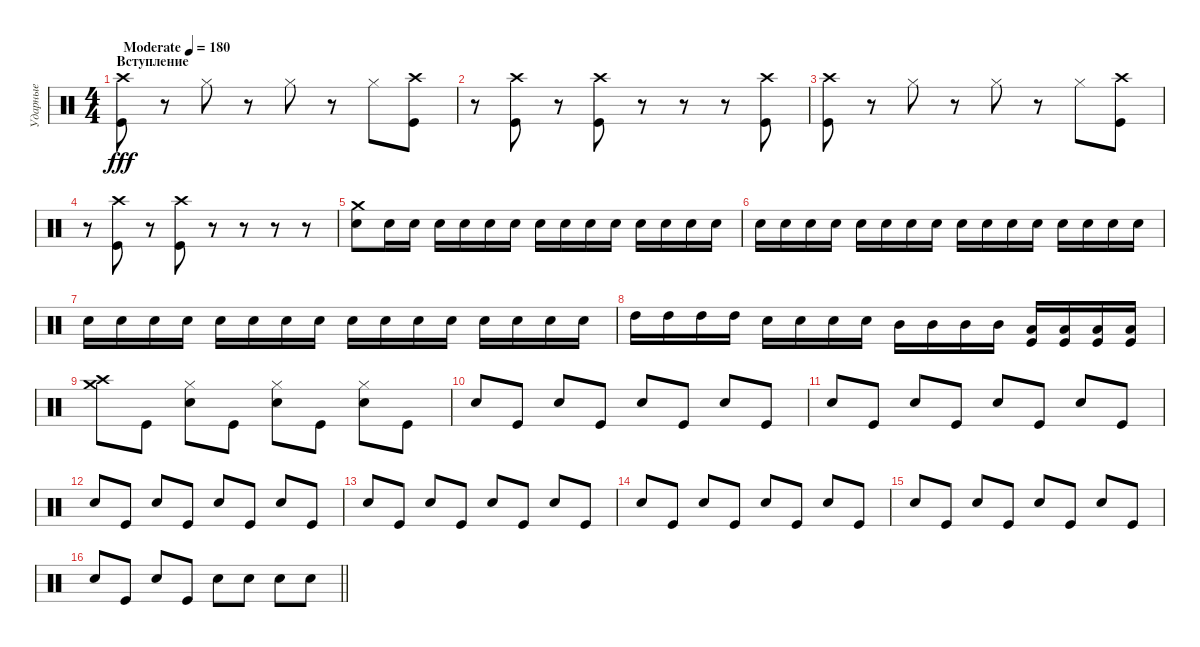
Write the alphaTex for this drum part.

\track ("Ударные" "Ударные") {instrument percussion}
\staff {score}
\articulation defaults
\ts (4 4)
\section ("" "Вступление")
\tempo (180 "Moderate")
\clef neutral
\ks c
("Crash high (hit)" "Kick (hit)").8{dy fff} r.8 "Hi-Hat (closed)".8 r.8 "Hi-Hat (closed)".8 r.8 "Hi-Hat (closed)".8 ("Crash high (hit)" "Kick (hit)").8 |
r.8 ("Crash high (hit)" "Kick (hit)").8 r.8 ("Crash high (hit)" "Kick (hit)").8 r.8 r.8 r.8 ("Crash high (hit)" "Kick (hit)").8 |
("Crash high (hit)" "Kick (hit)").8 r.8 "Hi-Hat (closed)".8 r.8 "Hi-Hat (closed)".8 r.8 "Hi-Hat (closed)".8 ("Crash high (hit)" "Kick (hit)").8 |
r.8 ("Crash high (hit)" "Kick (hit)").8 r.8 ("Crash high (hit)" "Kick (hit)").8 r.8 r.8 r.8 r.8 |
("Crash medium (hit)" "Electric Snare (hit)").8 "Electric Snare (hit)".16 "Electric Snare (hit)".16 "Electric Snare (hit)".16 "Electric Snare (hit)".16 "Electric Snare (hit)".16 "Electric Snare (hit)".16 "Electric Snare (hit)".16 "Electric Snare (hit)".16 "Electric Snare (hit)".16 "Electric Snare (hit)".16 "Electric Snare (hit)".16 "Electric Snare (hit)".16 "Electric Snare (hit)".16 "Electric Snare (hit)".16 |
"Electric Snare (hit)".16 "Electric Snare (hit)".16 "Electric Snare (hit)".16 "Electric Snare (hit)".16 "Electric Snare (hit)".16 "Electric Snare (hit)".16 "Electric Snare (hit)".16 "Electric Snare (hit)".16 "Electric Snare (hit)".16 "Electric Snare (hit)".16 "Electric Snare (hit)".16 "Electric Snare (hit)".16 "Electric Snare (hit)".16 "Electric Snare (hit)".16 "Electric Snare (hit)".16 "Electric Snare (hit)".16 |
"Electric Snare (hit)".16 "Electric Snare (hit)".16 "Electric Snare (hit)".16 "Electric Snare (hit)".16 "Electric Snare (hit)".16 "Electric Snare (hit)".16 "Electric Snare (hit)".16 "Electric Snare (hit)".16 "Electric Snare (hit)".16 "Electric Snare (hit)".16 "Electric Snare (hit)".16 "Electric Snare (hit)".16 "Electric Snare (hit)".16 "Electric Snare (hit)".16 "Electric Snare (hit)".16 "Electric Snare (hit)".16 |
"High Tom (hit)".16 "High Tom (hit)".16 "High Tom (hit)".16 "High Tom (hit)".16 "Electric Snare (hit)".16 "Electric Snare (hit)".16 "Electric Snare (hit)".16 "Electric Snare (hit)".16 "Mid Tom (hit)".16 "Mid Tom (hit)".16 "Mid Tom (hit)".16 "Mid Tom (hit)".16 ("Low Tom (hit)" "Kick (hit)").16 ("Low Tom (hit)" "Kick (hit)").16 ("Low Tom (hit)" "Kick (hit)").16 ("Low Tom (hit)" "Kick (hit)").16 |
("Crash medium (hit)" "Crash high (hit)").8 "Kick (hit)".8 ("Hi-Hat (closed)" "Electric Snare (hit)").8 "Kick (hit)".8 ("Hi-Hat (closed)" "Electric Snare (hit)").8 "Kick (hit)".8 ("Hi-Hat (closed)" "Electric Snare (hit)").8 "Kick (hit)".8 |
"Electric Snare (hit)".8 "Kick (hit)".8 "Electric Snare (hit)".8 "Kick (hit)".8 "Electric Snare (hit)".8 "Kick (hit)".8 "Electric Snare (hit)".8 "Kick (hit)".8 |
"Electric Snare (hit)".8 "Kick (hit)".8 "Electric Snare (hit)".8 "Kick (hit)".8 "Electric Snare (hit)".8 "Kick (hit)".8 "Electric Snare (hit)".8 "Kick (hit)".8 |
"Electric Snare (hit)".8 "Kick (hit)".8 "Electric Snare (hit)".8 "Kick (hit)".8 "Electric Snare (hit)".8 "Kick (hit)".8 "Electric Snare (hit)".8 "Kick (hit)".8 |
"Electric Snare (hit)".8 "Kick (hit)".8 "Electric Snare (hit)".8 "Kick (hit)".8 "Electric Snare (hit)".8 "Kick (hit)".8 "Electric Snare (hit)".8 "Kick (hit)".8 |
"Electric Snare (hit)".8 "Kick (hit)".8 "Electric Snare (hit)".8 "Kick (hit)".8 "Electric Snare (hit)".8 "Kick (hit)".8 "Electric Snare (hit)".8 "Kick (hit)".8 |
"Electric Snare (hit)".8 "Kick (hit)".8 "Electric Snare (hit)".8 "Kick (hit)".8 "Electric Snare (hit)".8 "Kick (hit)".8 "Electric Snare (hit)".8 "Kick (hit)".8 |
\barLineRight lightlight "Electric Snare (hit)".8 "Kick (hit)".8 "Electric Snare (hit)".8 "Kick (hit)".8 "Electric Snare (hit)".8 "Electric Snare (hit)".8 "Electric Snare (hit)".8 "Electric Snare (hit)".8
